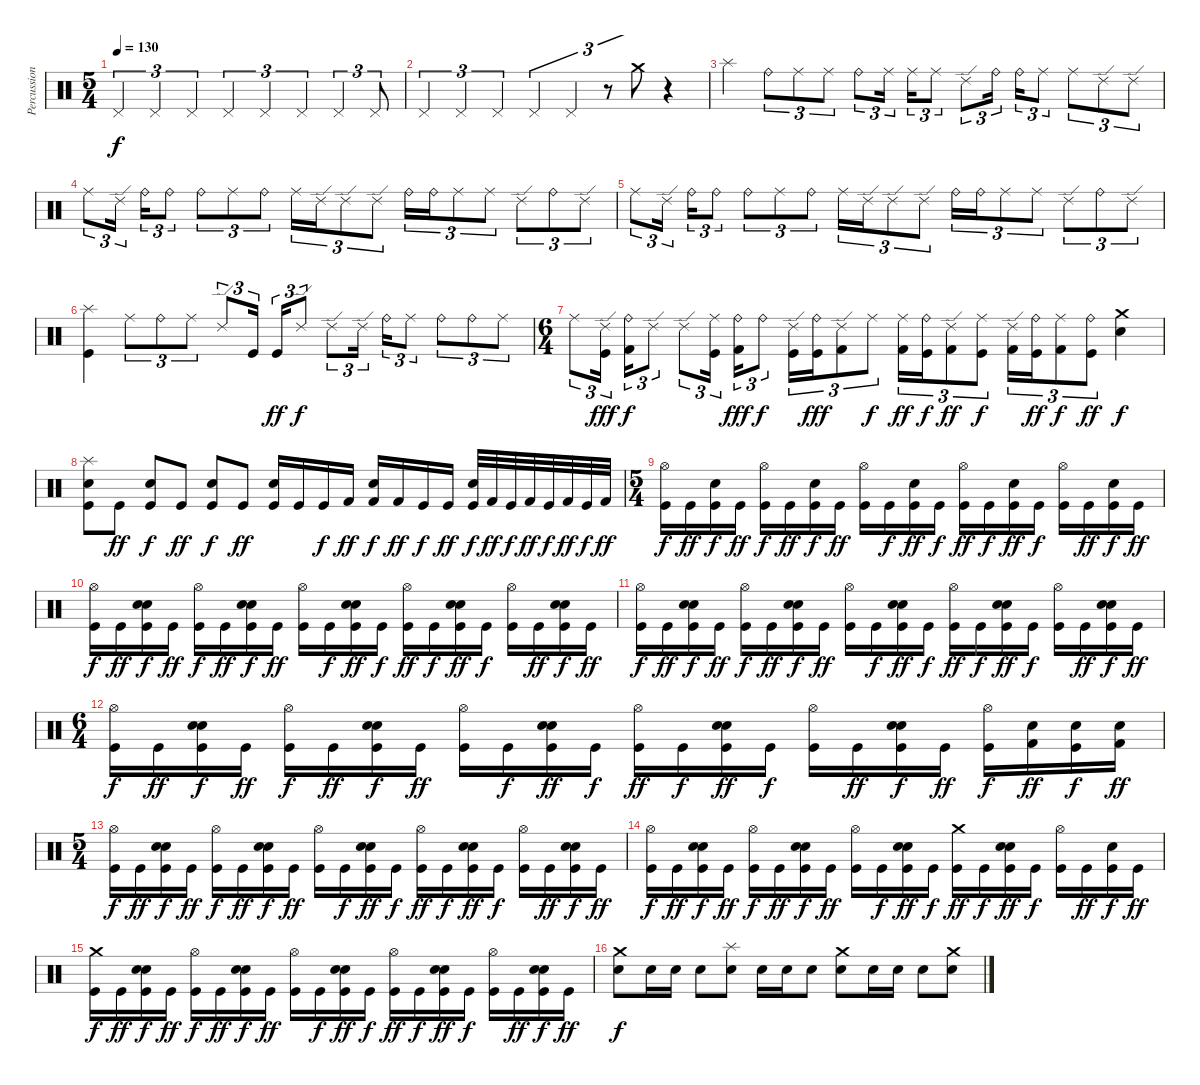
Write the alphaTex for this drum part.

\track ("Percussioni" "Percussion") {instrument percussion}
\staff {score}
\articulation defaults
\ts (5 4)
\tempo 130
\clef neutral
\ks c "Pedal Hi-Hat (hit)".4{tu (3 2) dy f} "Pedal Hi-Hat (hit)".4{tu (3 2)} "Pedal Hi-Hat (hit)".4{tu (3 2)} "Pedal Hi-Hat (hit)".4{tu (3 2)} "Pedal Hi-Hat (hit)".4{tu (3 2)} "Pedal Hi-Hat (hit)".4{tu (3 2)} "Pedal Hi-Hat (hit)".4{tu (3 2)} "Pedal Hi-Hat (hit)".8{tu (3 2)}
|
"Pedal Hi-Hat (hit)".4{tu (3 2)} "Pedal Hi-Hat (hit)".4{tu (3 2)} "Pedal Hi-Hat (hit)".4{tu (3 2)} "Pedal Hi-Hat (hit)".4{tu (3 2)} "Pedal Hi-Hat (hit)".4{tu (3 2)} r.8{tu (3 2)} "Crash medium (hit)".8{tu (3 2)} r.4 |
"Splash (hit)".4 "Ride (bell)".8{tu (3 2)} "Ride (middle)".8{tu (3 2)} "Ride (middle)".8{tu (3 2)} "Ride (bell)".8{tu (3 2)} "Ride (middle)".16{tu (3 2)} "Ride (middle)".16{tu (3 2)} "Ride (middle)".8{tu (3 2)} "Ride (edge) 2".8{tu (3 2)} "Ride (bell)".16{tu (3 2)} "Ride (bell)".16{tu (3 2)} "Ride (middle)".8{tu (3 2)} "Ride (middle)".8{tu (3 2)} "Ride (edge) 2".8{tu (3 2)} "Ride (edge) 2".8{tu (3 2)} |
"Ride (middle)".8{tu (3 2)} "Ride (edge) 2".16{tu (3 2)} "Ride (bell)".16{tu (3 2)} "Ride (bell)".8{tu (3 2)} "Ride (bell)".8{tu (3 2)} "Ride (middle)".8{tu (3 2)} "Ride (bell)".8{tu (3 2)} "Ride (middle)".16{tu (3 2)} "Ride (edge) 2".16{tu (3 2)} "Ride (edge) 2".8{tu (3 2)} "Ride (edge) 2".8{tu (3 2)} "Ride (bell)".16{tu (3 2)} "Ride (bell)".16{tu (3 2)} "Ride (middle)".8{tu (3 2)} "Ride (middle)".8{tu (3 2)} "Ride (edge) 2".8{tu (3 2)} "Ride (bell)".8{tu (3 2)} "Ride (edge) 2".8{tu (3 2)} |
"Ride (middle)".8{tu (3 2)} "Ride (edge) 2".16{tu (3 2)} "Ride (bell)".16{tu (3 2)} "Ride (bell)".8{tu (3 2)} "Ride (bell)".8{tu (3 2)} "Ride (middle)".8{tu (3 2)} "Ride (bell)".8{tu (3 2)} "Ride (middle)".16{tu (3 2)} "Ride (edge) 2".16{tu (3 2)} "Ride (edge) 2".8{tu (3 2)} "Ride (edge) 2".8{tu (3 2)} "Ride (bell)".16{tu (3 2)} "Ride (bell)".16{tu (3 2)} "Ride (middle)".8{tu (3 2)} "Ride (middle)".8{tu (3 2)} "Ride (edge) 2".8{tu (3 2)} "Ride (bell)".8{tu (3 2)} "Ride (edge) 2".8{tu (3 2)} |
("Splash (hit)" "Kick (hit)").4 "Ride (middle)".8{tu (3 2)} "Ride (bell)".8{tu (3 2)} "Ride (middle)".8{tu (3 2)} "Ride (edge) 2".8{tu (3 2)} "Kick (hit)".16{tu (3 2)} "Kick (hit)".16{tu (3 2) dy ff} "Ride (edge) 2".8{tu (3 2) dy f} "Ride (edge) 2".8{tu (3 2)} "Ride (edge) 2".16{tu (3 2)} "Ride (bell)".16{tu (3 2)} "Ride (middle)".8{tu (3 2)} "Ride (bell)".8{tu (3 2)} "Ride (bell)".8{tu (3 2)} "Ride (middle)".8{tu (3 2)} |
\ts (6 4)
"Ride (middle)".8{tu (3 2)} ("Ride (edge) 2" "Kick (hit)").16{tu (3 2) dy fff} ("Ride (bell)" "Kick (hit) 2").16{tu (3 2) dy f} "Ride (edge) 2".8{tu (3 2)} "Ride (edge) 2".8{tu (3 2)} ("Ride (middle)" "Kick (hit)").16{tu (3 2)} ("Ride (bell)" "Kick (hit) 2").16{tu (3 2) dy fff} "Ride (bell)".8{tu (3 2) dy f} ("Ride (edge) 2" "Kick (hit)").16{tu (3 2)} ("Ride (bell)" "Kick (hit)").16{tu (3 2) dy fff} ("Ride (edge) 2" "Kick (hit) 2").8{tu (3 2)} "Ride (middle)".8{tu (3 2) dy f} ("Ride (middle)" "Kick (hit) 2").16{tu (3 2) dy ff} ("Ride (bell)" "Kick (hit)").16{tu (3 2) dy f} ("Ride (edge) 2" "Kick (hit) 2").8{tu (3 2) dy ff} ("Ride (middle)" "Kick (hit)").8{tu (3 2) dy f} ("Ride (edge) 2" "Kick (hit) 2").16{tu (3 2)} ("Ride (bell)" "Kick (hit)").16{tu (3 2) dy ff} ("Ride (middle)" "Kick (hit) 2").8{tu (3 2) dy f} ("Ride (bell)" "Kick (hit)").8{tu (3 2) dy ff} ("Crash medium (hit)" "Snare (hit) 2").4{dy f} |
("Splash (hit)" "Snare (hit) 2" "Kick (hit)").8 "Kick (hit)".8{dy ff} ("Snare (hit) 2" "Kick (hit)").8{dy f} "Kick (hit)".8{dy ff} ("Snare (hit) 2" "Kick (hit)").8{dy f} "Kick (hit)".8{dy ff} ("Snare (hit) 2" "Kick (hit)").16 "Kick (hit)".16 "Kick (hit)".16{dy f} "Kick (hit) 2".16{dy ff} ("Snare (hit) 2" "Kick (hit) 2").16{dy f} "Kick (hit) 2".16{dy ff} "Kick (hit)".16{dy f} "Kick (hit)".16{dy ff} ("Snare (hit) 2" "Kick (hit)").32{dy f} "Kick (hit) 2".32{dy ff} "Kick (hit)".32{dy f} "Kick (hit) 2".32{dy ff} "Kick (hit)".32{dy f} "Kick (hit) 2".32{dy ff} "Kick (hit)".32{dy f} "Kick (hit) 2".32{dy ff} |
\ts (5 4)
("Hi-Hat (open)" "Kick (hit)").16{dy f} "Kick (hit)".16{dy ff} ("Electric Snare (hit)" "Kick (hit)").16{dy f} "Kick (hit)".16{dy ff} ("Hi-Hat (open)" "Kick (hit)").16{dy f} "Kick (hit)".16{dy ff} ("Electric Snare (hit)" "Kick (hit)").16{dy f} "Kick (hit)".16{dy ff} ("Hi-Hat (open)" "Kick (hit)").16 "Kick (hit)".16{dy f} ("Electric Snare (hit)" "Kick (hit)").16{dy ff} "Kick (hit)".16{dy f} ("Hi-Hat (open)" "Kick (hit)").16{dy ff} "Kick (hit)".16{dy f} ("Electric Snare (hit)" "Kick (hit)").16{dy ff} "Kick (hit)".16{dy f} ("Hi-Hat (open)" "Kick (hit)").16 "Kick (hit)".16{dy ff} ("Electric Snare (hit)" "Kick (hit)").16{dy f} "Kick (hit)".16{dy ff} |
("Hi-Hat (open)" "Kick (hit)").16{dy f} "Kick (hit)".16{dy ff} ("Snare (hit) 2" "Electric Snare (hit)" "Kick (hit)").16{dy f} "Kick (hit)".16{dy ff} ("Hi-Hat (open)" "Kick (hit)").16{dy f} "Kick (hit)".16{dy ff} ("Snare (hit) 2" "Electric Snare (hit)" "Kick (hit)").16{dy f} "Kick (hit)".16{dy ff} ("Hi-Hat (open)" "Kick (hit)").16 "Kick (hit)".16{dy f} ("Snare (hit) 2" "Electric Snare (hit)" "Kick (hit)").16{dy ff} "Kick (hit)".16{dy f} ("Hi-Hat (open)" "Kick (hit)").16{dy ff} "Kick (hit)".16{dy f} ("Snare (hit) 2" "Electric Snare (hit)" "Kick (hit)").16{dy ff} "Kick (hit)".16{dy f} ("Hi-Hat (open)" "Kick (hit)").16 "Kick (hit)".16{dy ff} ("Snare (hit) 2" "Electric Snare (hit)" "Kick (hit)").16{dy f} "Kick (hit)".16{dy ff} |
("Hi-Hat (open)" "Kick (hit)").16{dy f} "Kick (hit)".16{dy ff} ("Snare (hit) 2" "Electric Snare (hit)" "Kick (hit)").16{dy f} "Kick (hit)".16{dy ff} ("Hi-Hat (open)" "Kick (hit)").16{dy f} "Kick (hit)".16{dy ff} ("Snare (hit) 2" "Electric Snare (hit)" "Kick (hit)").16{dy f} "Kick (hit)".16{dy ff} ("Hi-Hat (open)" "Kick (hit)").16 "Kick (hit)".16{dy f} ("Snare (hit) 2" "Electric Snare (hit)" "Kick (hit)").16{dy ff} "Kick (hit)".16{dy f} ("Hi-Hat (open)" "Kick (hit)").16{dy ff} "Kick (hit)".16{dy f} ("Snare (hit) 2" "Electric Snare (hit)" "Kick (hit)").16{dy ff} "Kick (hit)".16{dy f} ("Hi-Hat (open)" "Kick (hit)").16 "Kick (hit)".16{dy ff} ("Snare (hit) 2" "Electric Snare (hit)" "Kick (hit)").16{dy f} "Kick (hit)".16{dy ff} |
\ts (6 4)
("Hi-Hat (open)" "Kick (hit)").16{dy f} "Kick (hit)".16{dy ff} ("Snare (hit) 2" "Electric Snare (hit)" "Kick (hit)").16{dy f} "Kick (hit)".16{dy ff} ("Hi-Hat (open)" "Kick (hit)").16{dy f} "Kick (hit)".16{dy ff} ("Snare (hit) 2" "Electric Snare (hit)" "Kick (hit)").16{dy f} "Kick (hit)".16{dy ff} ("Hi-Hat (open)" "Kick (hit)").16 "Kick (hit)".16{dy f} ("Snare (hit) 2" "Electric Snare (hit)" "Kick (hit)").16{dy ff} "Kick (hit)".16{dy f} ("Hi-Hat (open)" "Kick (hit)").16{dy ff} "Kick (hit)".16{dy f} ("Snare (hit) 2" "Electric Snare (hit)" "Kick (hit)").16{dy ff} "Kick (hit)".16{dy f} ("Hi-Hat (open)" "Kick (hit)").16 "Kick (hit)".16{dy ff} ("Snare (hit) 2" "Electric Snare (hit)" "Kick (hit)").16{dy f} "Kick (hit)".16{dy ff} ("Hi-Hat (open)" "Kick (hit)").16{dy f} ("Electric Snare (hit)" "Kick (hit) 2").16{dy ff} ("Electric Snare (hit)" "Kick (hit)").16{dy f} ("Electric Snare (hit)" "Kick (hit) 2").16{dy ff} |
\ts (5 4)
("Hi-Hat (open)" "Kick (hit)").16{dy f} "Kick (hit)".16{dy ff} ("Snare (hit) 2" "Electric Snare (hit)" "Kick (hit)").16{dy f} "Kick (hit)".16{dy ff} ("Hi-Hat (open)" "Kick (hit)").16{dy f} "Kick (hit)".16{dy ff} ("Snare (hit) 2" "Electric Snare (hit)" "Kick (hit)").16{dy f} "Kick (hit)".16{dy ff} ("Hi-Hat (open)" "Kick (hit)").16 "Kick (hit)".16{dy f} ("Snare (hit) 2" "Electric Snare (hit)" "Kick (hit)").16{dy ff} "Kick (hit)".16{dy f} ("Hi-Hat (open)" "Kick (hit)").16{dy ff} "Kick (hit)".16{dy f} ("Snare (hit) 2" "Electric Snare (hit)" "Kick (hit)").16{dy ff} "Kick (hit)".16{dy f} ("Hi-Hat (open)" "Kick (hit)").16 "Kick (hit)".16{dy ff} ("Snare (hit) 2" "Electric Snare (hit)" "Kick (hit)").16{dy f} "Kick (hit)".16{dy ff} |
("Hi-Hat (open)" "Kick (hit)").16{dy f} "Kick (hit)".16{dy ff} ("Snare (hit) 2" "Electric Snare (hit)" "Kick (hit)").16{dy f} "Kick (hit)".16{dy ff} ("Hi-Hat (open)" "Kick (hit)").16{dy f} "Kick (hit)".16{dy ff} ("Snare (hit) 2" "Electric Snare (hit)" "Kick (hit)").16{dy f} "Kick (hit)".16{dy ff} ("Hi-Hat (open)" "Kick (hit)").16 "Kick (hit)".16{dy f} ("Snare (hit) 2" "Electric Snare (hit)" "Kick (hit)").16{dy ff} "Kick (hit)".16{dy f} ("Crash medium (hit)" "Kick (hit)").16{dy ff} "Kick (hit)".16{dy f} ("Snare (hit) 2" "Electric Snare (hit)" "Kick (hit)").16{dy ff} "Kick (hit)".16{dy f} ("Hi-Hat (open)" "Kick (hit)").16 "Kick (hit)".16{dy ff} ("Snare (hit) 2" "Kick (hit)").16{dy f} "Kick (hit)".16{dy ff} |
("Crash medium (hit)" "Kick (hit)").16{dy f} "Kick (hit)".16{dy ff} ("Snare (hit) 2" "Electric Snare (hit)" "Kick (hit)").16{dy f} "Kick (hit)".16{dy ff} ("Hi-Hat (open)" "Kick (hit)").16{dy f} "Kick (hit)".16{dy ff} ("Snare (hit) 2" "Electric Snare (hit)" "Kick (hit)").16{dy f} "Kick (hit)".16{dy ff} ("Hi-Hat (open)" "Kick (hit)").16 "Kick (hit)".16{dy f} ("Snare (hit) 2" "Electric Snare (hit)" "Kick (hit)").16{dy ff} "Kick (hit)".16{dy f} ("Hi-Hat (open)" "Kick (hit)").16{dy ff} "Kick (hit)".16{dy f} ("Snare (hit) 2" "Electric Snare (hit)" "Kick (hit)").16{dy ff} "Kick (hit)".16{dy f} ("Hi-Hat (open)" "Kick (hit)").16 "Kick (hit)".16{dy ff} ("Snare (hit) 2" "Electric Snare (hit)" "Kick (hit)").16{dy f} "Kick (hit)".16{dy ff} |
("Crash medium (hit)" "Snare (hit) 2").8{dy f} "Snare (hit) 2".16 "Snare (hit) 2".16 "Snare (hit) 2".8 ("Splash (hit)" "Snare (hit) 2").8 "Snare (hit) 2".16 "Snare (hit) 2".16 "Snare (hit) 2".8 ("Crash medium (hit)" "Snare (hit) 2").8 "Snare (hit) 2".16 "Snare (hit) 2".16 "Snare (hit) 2".8 ("Crash medium (hit)" "Snare (hit) 2").8
